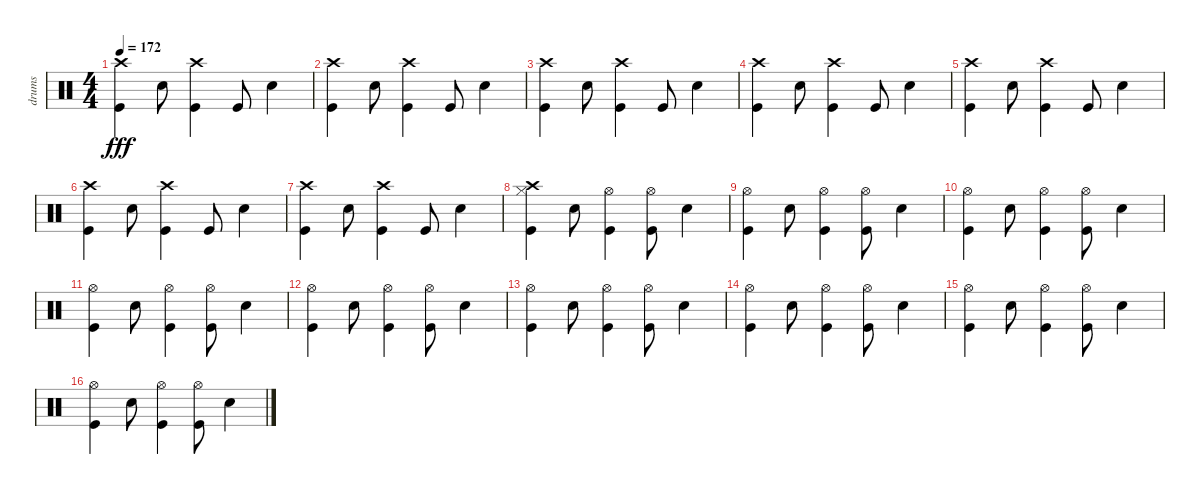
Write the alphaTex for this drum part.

\track ("drums" "drums") {instrument percussion}
\staff {score}
\articulation defaults
\ts (4 4)
\tempo 172
\clef neutral
\ks c
("Crash high (hit)" "Kick (hit)").4{dy fff} "Electric Snare (hit)".8 ("Crash high (hit)" "Kick (hit)").4 "Kick (hit)".8 "Electric Snare (hit)".4 |
("Crash high (hit)" "Kick (hit)").4 "Electric Snare (hit)".8 ("Crash high (hit)" "Kick (hit)").4 "Kick (hit)".8 "Electric Snare (hit)".4 |
("Crash high (hit)" "Kick (hit)").4 "Electric Snare (hit)".8 ("Crash high (hit)" "Kick (hit)").4 "Kick (hit)".8 "Electric Snare (hit)".4 |
("Crash high (hit)" "Kick (hit)").4 "Electric Snare (hit)".8 ("Crash high (hit)" "Kick (hit)").4 "Kick (hit)".8 "Electric Snare (hit)".4 |
("Crash high (hit)" "Kick (hit)").4 "Electric Snare (hit)".8 ("Crash high (hit)" "Kick (hit)").4 "Kick (hit)".8 "Electric Snare (hit)".4 |
("Crash high (hit)" "Kick (hit)").4 "Electric Snare (hit)".8 ("Crash high (hit)" "Kick (hit)").4 "Kick (hit)".8 "Electric Snare (hit)".4 |
("Crash high (hit)" "Kick (hit)").4 "Electric Snare (hit)".8 ("Crash high (hit)" "Kick (hit)").4 "Kick (hit)".8 "Electric Snare (hit)".4 |
("Crash high (hit)" "Hi-Hat (closed)" "Kick (hit)").4 "Electric Snare (hit)".8 ("Hi-Hat (open)" "Kick (hit)").4 ("Hi-Hat (open)" "Kick (hit)").8 "Electric Snare (hit)".4 |
("Hi-Hat (open)" "Kick (hit)").4 "Electric Snare (hit)".8 ("Hi-Hat (open)" "Kick (hit)").4 ("Hi-Hat (open)" "Kick (hit)").8 "Electric Snare (hit)".4 |
("Hi-Hat (open)" "Kick (hit)").4 "Electric Snare (hit)".8 ("Hi-Hat (open)" "Kick (hit)").4 ("Hi-Hat (open)" "Kick (hit)").8 "Electric Snare (hit)".4 |
("Hi-Hat (open)" "Kick (hit)").4 "Electric Snare (hit)".8 ("Hi-Hat (open)" "Kick (hit)").4 ("Hi-Hat (open)" "Kick (hit)").8 "Electric Snare (hit)".4 |
("Hi-Hat (open)" "Kick (hit)").4 "Electric Snare (hit)".8 ("Hi-Hat (open)" "Kick (hit)").4 ("Hi-Hat (open)" "Kick (hit)").8 "Electric Snare (hit)".4 |
("Hi-Hat (open)" "Kick (hit)").4 "Electric Snare (hit)".8 ("Hi-Hat (open)" "Kick (hit)").4 ("Hi-Hat (open)" "Kick (hit)").8 "Electric Snare (hit)".4 |
("Hi-Hat (open)" "Kick (hit)").4 "Electric Snare (hit)".8 ("Hi-Hat (open)" "Kick (hit)").4 ("Hi-Hat (open)" "Kick (hit)").8 "Electric Snare (hit)".4 |
("Hi-Hat (open)" "Kick (hit)").4 "Electric Snare (hit)".8 ("Hi-Hat (open)" "Kick (hit)").4 ("Hi-Hat (open)" "Kick (hit)").8 "Electric Snare (hit)".4 |
("Hi-Hat (open)" "Kick (hit)").4 "Electric Snare (hit)".8 ("Hi-Hat (open)" "Kick (hit)").4 ("Hi-Hat (open)" "Kick (hit)").8 "Electric Snare (hit)".4
